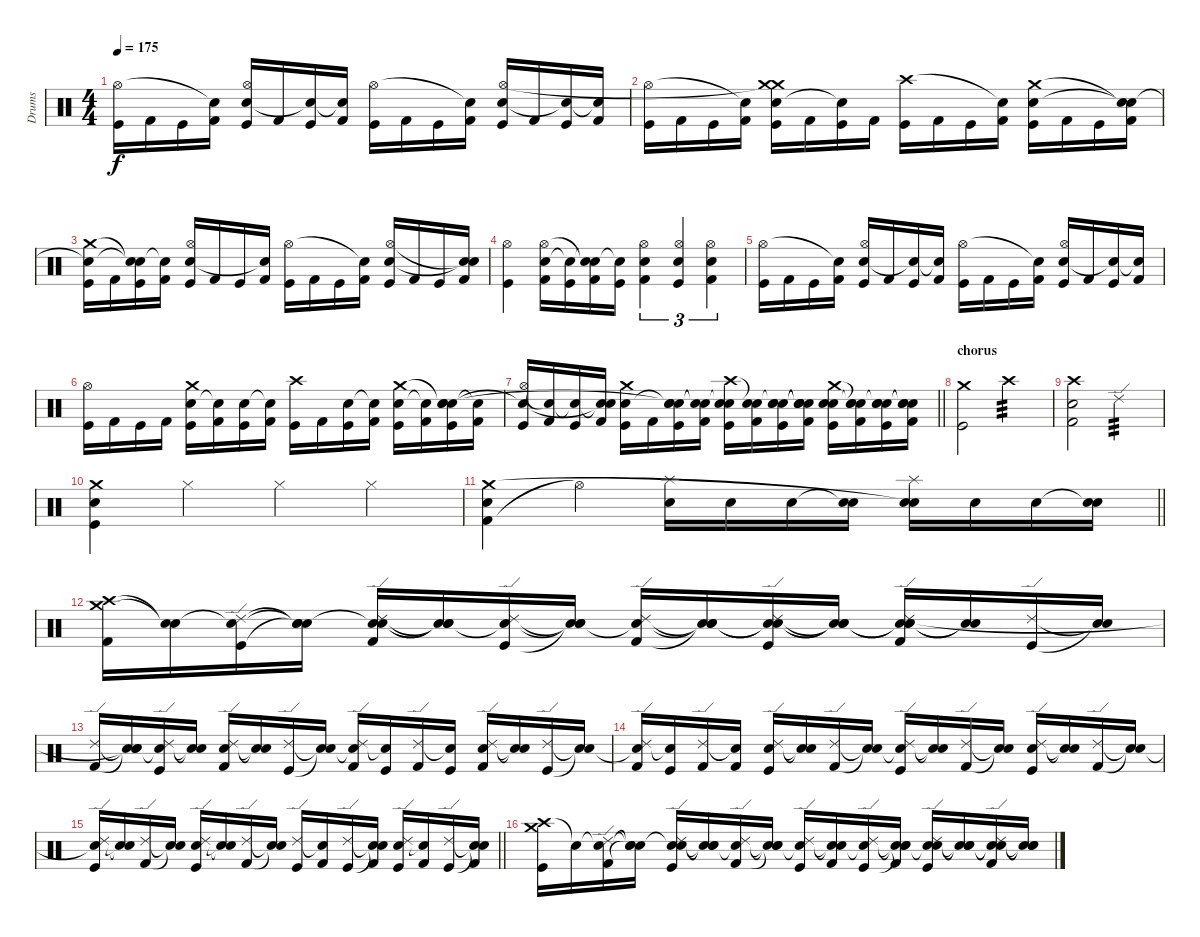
\track ("Drums" "Drums") {instrument percussion}
\staff {score}
\articulation defaults
\ts (4 4)
\tempo 175
\clef neutral
\ks c
("Kick (hit)" "Hi-Hat (open)").16{dy f} "Kick (hit) 2".16 "Kick (hit)".16 ("Kick (hit) 2" "Snare (hit)"{t}).16 ("Kick (hit)" "Snare (hit) 2" "Hi-Hat (open)").16 "Kick (hit) 2".16 ("Kick (hit)" "Snare (hit)"{t}).16 ("Kick (hit) 2" "Snare (hit)"{t}).16 ("Kick (hit)" "Hi-Hat (open)").16 "Kick (hit) 2".16 "Kick (hit)".16 ("Kick (hit) 2" "Snare (hit)"{t}).16 ("Kick (hit)" "Snare (hit) 2" "Hi-Hat (open)").16 "Kick (hit) 2".16 ("Kick (hit)" "Snare (hit)"{t}).16 ("Kick (hit) 2" "Snare (hit)"{t}).16 |
("Kick (hit)" "Hi-Hat (open)").16 "Kick (hit) 2".16 "Kick (hit)".16 ("Kick (hit) 2" "Snare (hit)"{t}).16 ("Kick (hit)" "Snare (hit) 2" "Crash medium (hit)"{t} "Crash medium (hit)").16 "Kick (hit) 2".16 ("Kick (hit)" "Snare (hit)"{t}).16 "Kick (hit) 2".16 ("Kick (hit)" "Crash high (hit)").16 "Kick (hit) 2".16 "Kick (hit)".16 ("Kick (hit) 2" "Snare (hit)"{t}).16 ("Kick (hit)" "Snare (hit) 2" "Crash medium (hit)").16 "Kick (hit) 2".16 "Kick (hit)".16 ("Kick (hit) 2" "Snare (hit)"{t} "Snare (hit)"{t}).16 |
("Kick (hit)" "Snare (hit)"{t} "Crash medium (hit)").16 "Kick (hit) 2".16 ("Kick (hit)" "Snare (hit)"{t} "Snare (hit)"{t}).16 ("Kick (hit) 2" "Snare (hit)"{t}).16 ("Kick (hit)" "Snare (hit) 2" "Hi-Hat (open)").16 "Kick (hit) 2".16 "Kick (hit)".16 ("Kick (hit) 2" "Snare (hit)"{t}).16 ("Kick (hit)" "Hi-Hat (open)").16 "Kick (hit) 2".16 "Kick (hit)".16 ("Kick (hit) 2" "Snare (hit)"{t}).16 ("Kick (hit)" "Snare (hit) 2" "Hi-Hat (open)").16 "Kick (hit) 2".16 "Kick (hit)".16 ("Kick (hit) 2" "Snare (hit)"{t} "Snare (hit)"{t}).16 |
("Kick (hit)" "Hi-Hat (open)").4 ("Kick (hit) 2" "Snare (hit) 2" "Hi-Hat (open)").16 ("Kick (hit)" "Snare (hit)"{t}).16 ("Kick (hit) 2" "Snare (hit)"{t} "Snare (hit)"{t}).16 ("Kick (hit)" "Snare (hit)"{t}).16 ("Kick (hit) 2" "Snare (hit) 2" "Hi-Hat (open)").4{tu (3 2)} ("Kick (hit)" "Snare (hit) 2" "Hi-Hat (open)").4{tu (3 2)} ("Kick (hit) 2" "Snare (hit) 2" "Hi-Hat (open)").4{tu (3 2)} |
("Kick (hit)" "Hi-Hat (open)").16 "Kick (hit) 2".16 "Kick (hit)".16 ("Kick (hit) 2" "Snare (hit)"{t}).16 ("Kick (hit)" "Snare (hit) 2" "Hi-Hat (open)").16 "Kick (hit) 2".16 ("Kick (hit)" "Snare (hit)"{t}).16 ("Kick (hit) 2" "Snare (hit)"{t}).16 ("Kick (hit)" "Hi-Hat (open)").16 "Kick (hit) 2".16 "Kick (hit)".16 ("Kick (hit) 2" "Snare (hit)"{t}).16 ("Kick (hit)" "Snare (hit) 2" "Hi-Hat (open)").16 "Kick (hit) 2".16 ("Kick (hit)" "Snare (hit)"{t}).16 ("Kick (hit) 2" "Snare (hit)"{t}).16 |
("Kick (hit)" "Hi-Hat (open)").16 "Kick (hit) 2".16 "Kick (hit)".16 "Kick (hit) 2".16 ("Kick (hit)" "Snare (hit) 2" "Crash medium (hit)").16 ("Kick (hit) 2" "Snare (hit)"{t}).16 ("Kick (hit)" "Snare (hit) 2").16 ("Kick (hit) 2" "Snare (hit)"{t}).16 ("Kick (hit)" "Crash high (hit)").16 "Kick (hit) 2".16 ("Kick (hit)" "Snare (hit) 2").16 ("Kick (hit) 2" "Snare (hit)"{t}).16 ("Kick (hit)" "Snare (hit) 2" "Crash medium (hit)").16 ("Kick (hit) 2" "Snare (hit)"{t}).16 ("Kick (hit)" "Snare (hit) 2" "Snare (hit)"{t} "Snare (hit)").16 ("Kick (hit) 2" "Snare (hit)"{t}).16 |
\barLineRight lightlight
("Kick (hit)" "Hi-Hat (open)" "Snare (hit)"{t}).16 ("Kick (hit) 2" "Snare (hit)"{t}).16 ("Kick (hit)" "Snare (hit)"{t}).16 ("Kick (hit) 2" "Snare (hit)"{t} "Snare (hit)"{t}).16 ("Kick (hit)" "Snare (hit) 2" "Crash medium (hit)").16 "Kick (hit) 2".16 ("Kick (hit)" "Snare (hit)"{t} "Snare (hit) 2" "Snare (hit)"{t}).16 ("Kick (hit) 2" "Snare (hit)"{t} "Snare (hit)"{t}).16 ("Kick (hit)" "Crash high (hit)" "Snare (hit)"{t} "Snare (hit) 2").16 ("Kick (hit) 2" "Snare (hit)"{t} "Snare (hit) 2").16 ("Kick (hit)" "Snare (hit) 2" "Snare (hit)"{t} "Snare (hit) 2").16 ("Kick (hit) 2" "Snare (hit)"{t} "Snare (hit)"{t} "Snare (hit)"{t} "Snare (hit) 2").16 ("Kick (hit)" "Snare (hit) 2" "Crash medium (hit)" "Snare (hit) 2").16 ("Kick (hit) 2" "Snare (hit)"{t} "Snare (hit)"{t} "Snare (hit) 2").16 ("Kick (hit)" "Snare (hit) 2" "Snare (hit)"{t} "Snare (hit) 2").16 ("Kick (hit) 2" "Snare (hit)"{t} "Snare (hit)"{t} "Snare (hit) 2").16 |
\section ("" "chorus")
("Kick (hit)" "Crash medium (hit)").2 "Crash high (hit)".2{tp 3} |
("Kick (hit) 2" "Snare (hit) 2" "Crash high (hit)").2 "Ride (edge) 2".2{tp 3} |
("Kick (hit)" "Snare (hit) 2" "Crash medium (hit)").4 "Hi-Hat (closed)".4 "Hi-Hat (closed)".4 "Hi-Hat (closed)".4 |
\barLineRight lightlight
("Kick (hit) 2" "Snare (hit) 2" "Crash medium (hit)").4 "Hi-Hat (open)"{t}.4 ("Splash (hit)" "Snare (hit) 2").16 "Snare (hit) 2".16 "Snare (hit) 2".16 ("Snare (hit)"{t} "Snare (hit) 2").16 ("Splash (hit)" "Snare (hit) 2" "Snare (hit)"{t}).16 "Snare (hit) 2".16 "Snare (hit) 2".16 ("Snare (hit)"{t} "Snare (hit) 2").16 |
\section ("" "")
("Crash high (hit)" "Crash medium (hit)" "Kick (hit) 2").16 ("Snare (hit)"{t} "Snare (hit)"{t}).16 ("Snare (hit)"{t} "Ride (edge) 2" "Kick (hit)").16 ("Snare (hit)"{t} "Snare (hit)"{t} "Snare (hit)"{t}).16 ("Snare (hit)"{t} "Ride (edge) 2" "Snare (hit) 2" "Kick (hit) 2").16 ("Snare (hit)"{t} "Snare (hit)"{t} "Snare (hit)"{t}).16 ("Snare (hit)"{t} "Ride (edge) 2" "Kick (hit)").16 ("Snare (hit)"{t} "Snare (hit)"{t} "Snare (hit)"{t}).16 ("Snare (hit)"{t} "Ride (edge) 2" "Kick (hit) 2").16 ("Snare (hit)"{t} "Snare (hit)"{t} "Snare (hit)"{t}).16 ("Snare (hit)"{t} "Ride (edge) 2" "Snare (hit)"{t} "Kick (hit)").16 ("Snare (hit)"{t} "Snare (hit)"{t} "Snare (hit)"{t}).16 ("Snare (hit)"{t} "Snare (hit)"{t} "Ride (edge) 2" "Snare (hit) 2" "Kick (hit) 2").16 ("Snare (hit)"{t} "Snare (hit)"{t}).16 ("Ride (edge) 2" "Kick (hit)").16 ("Snare (hit)"{t} "Snare (hit)"{t}).16 |
("Ride (edge) 2" "Kick (hit) 2").16 ("Snare (hit)"{t} "Snare (hit)"{t} "Snare (hit)"{t}).16 ("Ride (edge) 2" "Snare (hit)"{t} "Kick (hit)").16 ("Snare (hit)"{t} "Snare (hit)"{t}).16 ("Ride (edge) 2" "Snare (hit) 2" "Kick (hit) 2").16 ("Snare (hit)"{t} "Snare (hit)"{t}).16 ("Ride (edge) 2" "Kick (hit)").16 ("Snare (hit)"{t} "Snare (hit)"{t}).16 ("Ride (edge) 2" "Snare (hit)"{t} "Kick (hit) 2").16 ("Snare (hit)"{t} "Kick (hit)").16 ("Ride (edge) 2" "Kick (hit) 2").16 ("Snare (hit)"{t} "Kick (hit)").16 ("Ride (edge) 2" "Snare (hit) 2" "Kick (hit) 2").16 ("Snare (hit)"{t} "Snare (hit)"{t}).16 ("Ride (edge) 2" "Kick (hit)").16 ("Snare (hit)"{t} "Snare (hit)"{t}).16 |
("Ride (edge) 2" "Snare (hit)"{t} "Kick (hit) 2").16 ("Snare (hit)"{t} "Kick (hit)").16 ("Ride (edge) 2" "Kick (hit) 2").16 ("Snare (hit)"{t} "Kick (hit) 2").16 ("Ride (edge) 2" "Snare (hit) 2" "Kick (hit)").16 ("Snare (hit)"{t} "Snare (hit)"{t}).16 ("Ride (edge) 2" "Kick (hit) 2").16 ("Snare (hit)"{t} "Snare (hit)"{t}).16 ("Ride (edge) 2" "Snare (hit)"{t} "Kick (hit)").16 ("Snare (hit)"{t} "Snare (hit)"{t}).16 ("Ride (edge) 2" "Kick (hit) 2").16 ("Snare (hit)"{t} "Snare (hit)"{t}).16 ("Ride (edge) 2" "Snare (hit) 2" "Kick (hit)").16 ("Snare (hit)"{t} "Snare (hit)"{t}).16 ("Ride (edge) 2" "Kick (hit) 2").16 ("Snare (hit)"{t} "Snare (hit)"{t}).16 |
\barLineRight lightlight
("Ride (edge) 2" "Snare (hit)"{t} "Kick (hit)").16 ("Snare (hit)"{t} "Snare (hit)"{t}).16 ("Ride (edge) 2" "Kick (hit) 2").16 ("Snare (hit)"{t} "Snare (hit)"{t}).16 ("Ride (edge) 2" "Snare (hit) 2" "Kick (hit)").16 ("Snare (hit)"{t} "Snare (hit)"{t}).16 ("Ride (edge) 2" "Kick (hit) 2").16 ("Snare (hit)"{t} "Snare (hit)"{t}).16 ("Ride (edge) 2" "Kick (hit)").16 ("Snare (hit)"{t} "Kick (hit) 2").16 ("Ride (edge) 2" "Kick (hit)").16 ("Snare (hit)"{t} "Snare (hit)"{t} "Kick (hit) 2").16 ("Ride (edge) 2" "Snare (hit) 2" "Kick (hit)").16 ("Snare (hit)"{t} "Kick (hit) 2").16 ("Ride (edge) 2" "Kick (hit)").16 ("Snare (hit)"{t} "Snare (hit)"{t} "Kick (hit) 2").16 |
("Crash high (hit)" "Crash medium (hit)" "Kick (hit)").16 "Snare (hit)"{t}.16 ("Snare (hit)"{t} "Ride (edge) 2" "Kick (hit) 2").16 ("Snare (hit)"{t} "Snare (hit)"{t} "Snare (hit)"{t}).16 ("Snare (hit)"{t} "Ride (edge) 2" "Snare (hit) 2" "Kick (hit)").16 ("Snare (hit)"{t} "Snare (hit)"{t} "Snare (hit)"{t}).16 ("Snare (hit)"{t} "Ride (edge) 2" "Kick (hit) 2").16 ("Snare (hit)"{t} "Snare (hit)"{t} "Snare (hit)"{t}).16 ("Snare (hit)"{t} "Ride (edge) 2" "Kick (hit)").16 ("Snare (hit)"{t} "Snare (hit)"{t} "Kick (hit) 2").16 ("Snare (hit)"{t} "Ride (edge) 2" "Kick (hit)").16 ("Snare (hit)"{t} "Snare (hit)"{t} "Snare (hit)"{t} "Kick (hit) 2").16 ("Snare (hit)"{t} "Ride (edge) 2" "Snare (hit) 2" "Kick (hit)").16 ("Snare (hit)"{t} "Snare (hit)"{t} "Snare (hit)"{t}).16 ("Snare (hit)"{t} "Snare (hit)"{t} "Ride (edge) 2" "Kick (hit) 2").16 ("Snare (hit)"{t} "Snare (hit)"{t} "Snare (hit)"{t}).16
